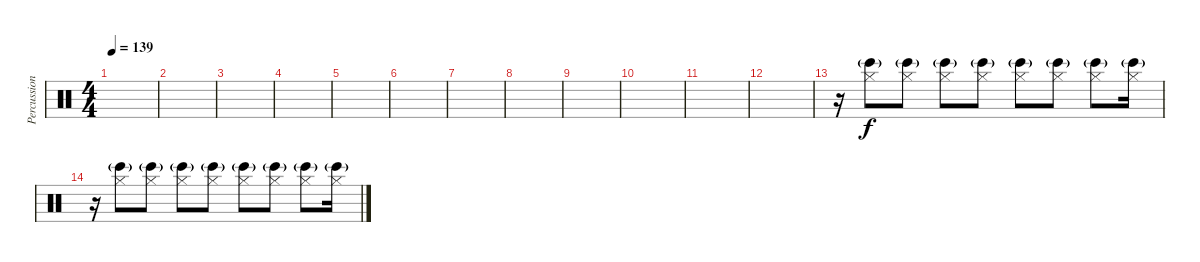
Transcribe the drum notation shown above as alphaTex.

\track ("Percussion" "Percussion") {instrument percussion}
\staff {score}
\articulation defaults
\ts (4 4)
\tempo 139
\clef neutral
\ks c
|
|
|
|
|
|
|
|
|
|
|
|
r.16{volume 16} ("Hi-Hat (closed)" "Bongo High (hit)"{g}).8{dy f balance 16} ("Hi-Hat (closed)" "Bongo High (hit)"{g}).8{balance 0} ("Hi-Hat (closed)" "Bongo High (hit)"{g}).8{balance 16} ("Hi-Hat (closed)" "Bongo High (hit)"{g}).8{balance 0} ("Hi-Hat (closed)" "Bongo High (hit)"{g}).8{balance 16} ("Hi-Hat (closed)" "Bongo High (hit)"{g}).8{balance 0} ("Hi-Hat (closed)" "Bongo High (hit)"{g}).8{balance 16} ("Hi-Hat (closed)" "Bongo High (hit)"{g}).16{balance 0} |
r.16{volume 0} ("Hi-Hat (closed)" "Bongo High (hit)"{g}).8{balance 16} ("Hi-Hat (closed)" "Bongo High (hit)"{g}).8{balance 0} ("Hi-Hat (closed)" "Bongo High (hit)"{g}).8{balance 16} ("Hi-Hat (closed)" "Bongo High (hit)"{g}).8{balance 0} ("Hi-Hat (closed)" "Bongo High (hit)"{g}).8{balance 16} ("Hi-Hat (closed)" "Bongo High (hit)"{g}).8{balance 0} ("Hi-Hat (closed)" "Bongo High (hit)"{g}).8{balance 16} ("Hi-Hat (closed)" "Bongo High (hit)"{g}).16{balance 0}
